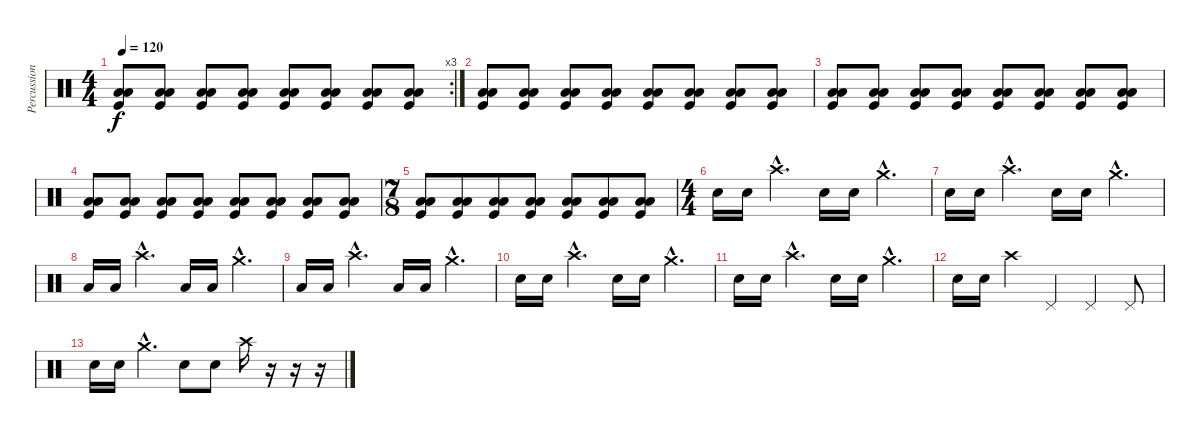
\track ("Percussion" "Percussion") {instrument percussion}
\staff {score}
\articulation defaults
\rc 3
\ts (4 4)
\tempo 120
\clef neutral
\ks c
("Kick (hit)" "Low Floor Tom (hit)" "Low Floor Tom (hit)").8{dy f} ("Kick (hit)" "Low Floor Tom (hit)" "Low Floor Tom (hit)").8 ("Kick (hit)" "Low Floor Tom (hit)" "Low Floor Tom (hit)").8 ("Kick (hit)" "Low Floor Tom (hit)" "Low Floor Tom (hit)").8 ("Kick (hit)" "Low Floor Tom (hit)" "Low Floor Tom (hit)").8 ("Kick (hit)" "Low Floor Tom (hit)" "Low Floor Tom (hit)").8 ("Kick (hit)" "Low Floor Tom (hit)" "Low Floor Tom (hit)").8 ("Kick (hit)" "Low Floor Tom (hit)" "Low Floor Tom (hit)").8 |
("Kick (hit)" "Low Floor Tom (hit)" "Low Floor Tom (hit)").8 ("Kick (hit)" "Low Floor Tom (hit)" "Low Floor Tom (hit)").8 ("Kick (hit)" "Low Floor Tom (hit)" "Low Floor Tom (hit)").8 ("Kick (hit)" "Low Floor Tom (hit)" "Low Floor Tom (hit)").8 ("Kick (hit)" "Low Floor Tom (hit)" "Low Floor Tom (hit)").8 ("Kick (hit)" "Low Floor Tom (hit)" "Low Floor Tom (hit)").8 ("Kick (hit)" "Low Floor Tom (hit)" "Low Floor Tom (hit)").8 ("Kick (hit)" "Low Floor Tom (hit)" "Low Floor Tom (hit)").8 |
("Kick (hit)" "Low Floor Tom (hit)" "Low Floor Tom (hit)").8 ("Kick (hit)" "Low Floor Tom (hit)" "Low Floor Tom (hit)").8 ("Kick (hit)" "Low Floor Tom (hit)" "Low Floor Tom (hit)").8 ("Kick (hit)" "Low Floor Tom (hit)" "Low Floor Tom (hit)").8 ("Kick (hit)" "Low Floor Tom (hit)" "Low Floor Tom (hit)").8 ("Kick (hit)" "Low Floor Tom (hit)" "Low Floor Tom (hit)").8 ("Kick (hit)" "Low Floor Tom (hit)" "Low Floor Tom (hit)").8 ("Kick (hit)" "Low Floor Tom (hit)" "Low Floor Tom (hit)").8 |
("Kick (hit)" "Low Floor Tom (hit)" "Low Floor Tom (hit)").8 ("Kick (hit)" "Low Floor Tom (hit)" "Low Floor Tom (hit)").8 ("Kick (hit)" "Low Floor Tom (hit)" "Low Floor Tom (hit)").8 ("Kick (hit)" "Low Floor Tom (hit)" "Low Floor Tom (hit)").8 ("Kick (hit)" "Low Floor Tom (hit)" "Low Floor Tom (hit)").8 ("Kick (hit)" "Low Floor Tom (hit)" "Low Floor Tom (hit)").8 ("Kick (hit)" "Low Floor Tom (hit)" "Low Floor Tom (hit)").8 ("Kick (hit)" "Low Floor Tom (hit)" "Low Floor Tom (hit)").8 |
\ts (7 8)
("Kick (hit)" "Low Floor Tom (hit)" "Low Floor Tom (hit)").8 ("Kick (hit)" "Low Floor Tom (hit)" "Low Floor Tom (hit)").8 ("Kick (hit)" "Low Floor Tom (hit)" "Low Floor Tom (hit)").8 ("Kick (hit)" "Low Floor Tom (hit)" "Low Floor Tom (hit)").8 ("Kick (hit)" "Low Floor Tom (hit)" "Low Floor Tom (hit)").8 ("Kick (hit)" "Low Floor Tom (hit)" "Low Floor Tom (hit)").8 ("Kick (hit)" "Low Floor Tom (hit)" "Low Floor Tom (hit)").8 |
\ts (4 4)
"Snare (hit) 2".16 "Snare (hit) 2".16 "Crash high (hit)"{hac}.4{d} "Snare (hit) 2".16 "Snare (hit) 2".16 "Crash medium (hit)"{hac}.4{d} |
"Snare (hit) 2".16 "Snare (hit) 2".16 "Crash high (hit)"{hac}.4{d} "Snare (hit) 2".16 "Snare (hit) 2".16 "Crash medium (hit)"{hac}.4{d} |
"Low Floor Tom (hit)".16 "Low Floor Tom (hit)".16 "Crash high (hit)"{hac}.4{d} "Low Floor Tom (hit)".16 "Low Floor Tom (hit)".16 "Crash medium (hit)"{hac}.4{d} |
"Low Floor Tom (hit)".16 "Low Floor Tom (hit)".16 "Crash high (hit)"{hac}.4{d} "Low Floor Tom (hit)".16 "Low Floor Tom (hit)".16 "Crash medium (hit)"{hac}.4{d} |
"Snare (hit) 2".16 "Snare (hit) 2".16 "Crash high (hit)"{hac}.4{d} "Snare (hit) 2".16 "Snare (hit) 2".16 "Crash medium (hit)"{hac}.4{d} |
"Snare (hit) 2".16 "Snare (hit) 2".16 "Crash high (hit)"{hac}.4{d} "Snare (hit) 2".16 "Snare (hit) 2".16 "Crash medium (hit)"{hac}.4{d} |
"Snare (hit) 2".16 "Snare (hit) 2".16 "Crash high (hit)".4 "Pedal Hi-Hat (hit)".4 "Pedal Hi-Hat (hit)".4 "Pedal Hi-Hat (hit)".8 |
"Snare (hit) 2".16 "Snare (hit) 2".16 "Crash medium (hit)"{hac}.4{d} "Snare (hit) 2".8 "Snare (hit) 2".8 "Crash high (hit)".16 r.16 r.16 r.16
